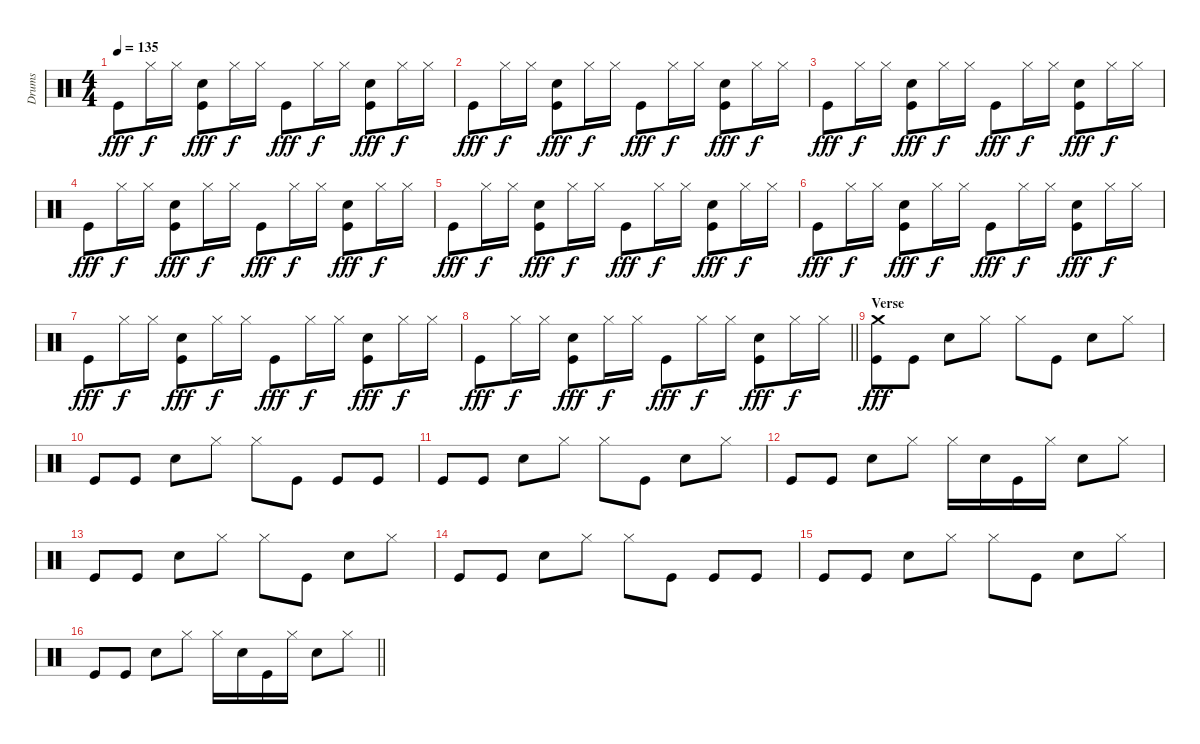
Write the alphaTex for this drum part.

\track ("Drums" "Drums") {instrument percussion}
\staff {score}
\articulation defaults
\ts (4 4)
\tempo 135
\clef neutral
\ks c "Kick (hit)".8{dy fff} "Hi-Hat (closed)".16{dy f} "Hi-Hat (closed)".16
("Kick (hit)" "Snare (hit) 2").8{dy fff} "Hi-Hat (closed)".16{dy f} "Hi-Hat (closed)".16 "Kick (hit)".8{dy fff} "Hi-Hat (closed)".16{dy f} "Hi-Hat (closed)".16 ("Kick (hit)" "Snare (hit) 2").8{dy fff} "Hi-Hat (closed)".16{dy f} "Hi-Hat (closed)".16 |
"Kick (hit)".8{dy fff} "Hi-Hat (closed)".16{dy f} "Hi-Hat (closed)".16 ("Kick (hit)" "Snare (hit) 2").8{dy fff} "Hi-Hat (closed)".16{dy f} "Hi-Hat (closed)".16 "Kick (hit)".8{dy fff} "Hi-Hat (closed)".16{dy f} "Hi-Hat (closed)".16 ("Kick (hit)" "Snare (hit) 2").8{dy fff} "Hi-Hat (closed)".16{dy f} "Hi-Hat (closed)".16 |
"Kick (hit)".8{dy fff} "Hi-Hat (closed)".16{dy f} "Hi-Hat (closed)".16 ("Kick (hit)" "Snare (hit) 2").8{dy fff} "Hi-Hat (closed)".16{dy f} "Hi-Hat (closed)".16 "Kick (hit)".8{dy fff} "Hi-Hat (closed)".16{dy f} "Hi-Hat (closed)".16 ("Kick (hit)" "Snare (hit) 2").8{dy fff} "Hi-Hat (closed)".16{dy f} "Hi-Hat (closed)".16 |
"Kick (hit)".8{dy fff} "Hi-Hat (closed)".16{dy f} "Hi-Hat (closed)".16 ("Kick (hit)" "Snare (hit) 2").8{dy fff} "Hi-Hat (closed)".16{dy f} "Hi-Hat (closed)".16 "Kick (hit)".8{dy fff} "Hi-Hat (closed)".16{dy f} "Hi-Hat (closed)".16 ("Kick (hit)" "Snare (hit) 2").8{dy fff} "Hi-Hat (closed)".16{dy f} "Hi-Hat (closed)".16 |
"Kick (hit)".8{dy fff} "Hi-Hat (closed)".16{dy f} "Hi-Hat (closed)".16 ("Kick (hit)" "Snare (hit) 2").8{dy fff} "Hi-Hat (closed)".16{dy f} "Hi-Hat (closed)".16 "Kick (hit)".8{dy fff} "Hi-Hat (closed)".16{dy f} "Hi-Hat (closed)".16 ("Kick (hit)" "Snare (hit) 2").8{dy fff} "Hi-Hat (closed)".16{dy f} "Hi-Hat (closed)".16 |
"Kick (hit)".8{dy fff} "Hi-Hat (closed)".16{dy f} "Hi-Hat (closed)".16 ("Kick (hit)" "Snare (hit) 2").8{dy fff} "Hi-Hat (closed)".16{dy f} "Hi-Hat (closed)".16 "Kick (hit)".8{dy fff} "Hi-Hat (closed)".16{dy f} "Hi-Hat (closed)".16 ("Kick (hit)" "Snare (hit) 2").8{dy fff} "Hi-Hat (closed)".16{dy f} "Hi-Hat (closed)".16 |
"Kick (hit)".8{dy fff} "Hi-Hat (closed)".16{dy f} "Hi-Hat (closed)".16 ("Kick (hit)" "Snare (hit) 2").8{dy fff} "Hi-Hat (closed)".16{dy f} "Hi-Hat (closed)".16 "Kick (hit)".8{dy fff} "Hi-Hat (closed)".16{dy f} "Hi-Hat (closed)".16 ("Kick (hit)" "Snare (hit) 2").8{dy fff} "Hi-Hat (closed)".16{dy f} "Hi-Hat (closed)".16 |
\barLineRight lightlight "Kick (hit)".8{dy fff} "Hi-Hat (closed)".16{dy f} "Hi-Hat (closed)".16
("Kick (hit)" "Snare (hit) 2").8{dy fff} "Hi-Hat (closed)".16{dy f} "Hi-Hat (closed)".16 "Kick (hit)".8{dy fff} "Hi-Hat (closed)".16{dy f} "Hi-Hat (closed)".16 ("Kick (hit)" "Snare (hit) 2").8{dy fff} "Hi-Hat (closed)".16{dy f} "Hi-Hat (closed)".16 |
\section ("" "Verse")
("Kick (hit)" "Crash medium (hit)").8{dy fff} "Kick (hit)".8 "Snare (hit) 2".8 "Hi-Hat (closed)".8 "Hi-Hat (closed)".8 "Kick (hit)".8 "Snare (hit) 2".8 "Hi-Hat (closed)".8 |
"Kick (hit)".8 "Kick (hit)".8 "Snare (hit) 2".8 "Hi-Hat (closed)".8 "Hi-Hat (closed)".8 "Kick (hit)".8 "Kick (hit)".8 "Kick (hit)".8 |
"Kick (hit)".8 "Kick (hit)".8 "Snare (hit) 2".8 "Hi-Hat (closed)".8 "Hi-Hat (closed)".8 "Kick (hit)".8 "Snare (hit) 2".8 "Hi-Hat (closed)".8 |
"Kick (hit)".8 "Kick (hit)".8 "Snare (hit) 2".8 "Hi-Hat (closed)".8 "Hi-Hat (closed)".16 "Snare (hit) 2".16 "Kick (hit)".16 "Hi-Hat (closed)".16 "Snare (hit) 2".8 "Hi-Hat (closed)".8 |
"Kick (hit)".8 "Kick (hit)".8 "Snare (hit) 2".8 "Hi-Hat (closed)".8 "Hi-Hat (closed)".8 "Kick (hit)".8 "Snare (hit) 2".8 "Hi-Hat (closed)".8 |
"Kick (hit)".8 "Kick (hit)".8 "Snare (hit) 2".8 "Hi-Hat (closed)".8 "Hi-Hat (closed)".8 "Kick (hit)".8 "Kick (hit)".8 "Kick (hit)".8 |
"Kick (hit)".8 "Kick (hit)".8 "Snare (hit) 2".8 "Hi-Hat (closed)".8 "Hi-Hat (closed)".8 "Kick (hit)".8 "Snare (hit) 2".8 "Hi-Hat (closed)".8 |
\barLineRight lightlight "Kick (hit)".8 "Kick (hit)".8 "Snare (hit) 2".8 "Hi-Hat (closed)".8 "Hi-Hat (closed)".16 "Snare (hit) 2".16 "Kick (hit)".16 "Hi-Hat (closed)".16 "Snare (hit) 2".8 "Hi-Hat (closed)".8
